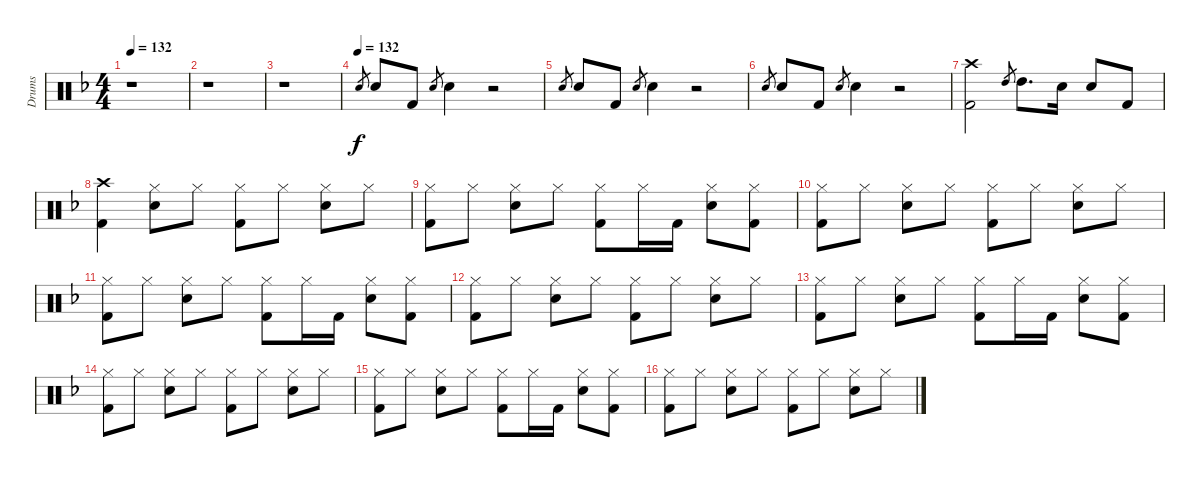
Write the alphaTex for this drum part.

\track ("Drums " "Drums ") {instrument percussion}
\staff {score}
\articulation defaults
\ts (4 4)
\tempo 132
\tempo 80
\tempo 132
\clef neutral
\ks dminor
r.1{dy f} |
r.1 |
r.1 |
\tempo (132)
"Snare (hit) 2".8{gr} "Snare (hit) 2".8 "Kick (hit) 2".8 "Snare (hit) 2".8{gr} "Snare (hit) 2".4 r.2 |
"Snare (hit) 2".8{gr} "Snare (hit) 2".8 "Kick (hit) 2".8 "Snare (hit) 2".8{gr} "Snare (hit) 2".4 r.2 |
"Snare (hit) 2".8{gr} "Snare (hit) 2".8 "Kick (hit) 2".8 "Snare (hit) 2".8{gr} "Snare (hit) 2".4 r.2 |
("Kick (hit) 2" "Crash high (hit)").2 "High Tom (hit)".8{gr} "High Tom (hit)".8{d} "Snare (hit) 2".16 "Snare (hit) 2".8 "Kick (hit) 2".8 |
("Kick (hit) 2" "Crash high (hit)").4 ("Snare (hit) 2" "Hi-Hat (closed)").8 "Hi-Hat (closed)".8 ("Kick (hit) 2" "Hi-Hat (closed)").8 "Hi-Hat (closed)".8 ("Snare (hit) 2" "Hi-Hat (closed)").8 "Hi-Hat (closed)".8 |
("Kick (hit) 2" "Hi-Hat (closed)").8 "Hi-Hat (closed)".8 ("Snare (hit) 2" "Hi-Hat (closed)").8 "Hi-Hat (closed)".8 ("Kick (hit) 2" "Hi-Hat (closed)").8 "Hi-Hat (closed)".16 "Kick (hit) 2".16 ("Snare (hit) 2" "Hi-Hat (closed)").8 ("Kick (hit) 2" "Hi-Hat (closed)").8 |
("Kick (hit) 2" "Hi-Hat (closed)").8 "Hi-Hat (closed)".8 ("Snare (hit) 2" "Hi-Hat (closed)").8 "Hi-Hat (closed)".8 ("Kick (hit) 2" "Hi-Hat (closed)").8 "Hi-Hat (closed)".8 ("Snare (hit) 2" "Hi-Hat (closed)").8 "Hi-Hat (closed)".8 |
("Kick (hit) 2" "Hi-Hat (closed)").8 "Hi-Hat (closed)".8 ("Snare (hit) 2" "Hi-Hat (closed)").8 "Hi-Hat (closed)".8 ("Kick (hit) 2" "Hi-Hat (closed)").8 "Hi-Hat (closed)".16 "Kick (hit) 2".16 ("Snare (hit) 2" "Hi-Hat (closed)").8 ("Kick (hit) 2" "Hi-Hat (closed)").8 |
("Kick (hit) 2" "Hi-Hat (closed)").8 "Hi-Hat (closed)".8 ("Snare (hit) 2" "Hi-Hat (closed)").8 "Hi-Hat (closed)".8 ("Kick (hit) 2" "Hi-Hat (closed)").8 "Hi-Hat (closed)".8 ("Snare (hit) 2" "Hi-Hat (closed)").8 "Hi-Hat (closed)".8 |
("Kick (hit) 2" "Hi-Hat (closed)").8 "Hi-Hat (closed)".8 ("Snare (hit) 2" "Hi-Hat (closed)").8 "Hi-Hat (closed)".8 ("Kick (hit) 2" "Hi-Hat (closed)").8 "Hi-Hat (closed)".16 "Kick (hit) 2".16 ("Snare (hit) 2" "Hi-Hat (closed)").8 ("Kick (hit) 2" "Hi-Hat (closed)").8 |
("Kick (hit) 2" "Hi-Hat (closed)").8 "Hi-Hat (closed)".8 ("Snare (hit) 2" "Hi-Hat (closed)").8 "Hi-Hat (closed)".8 ("Kick (hit) 2" "Hi-Hat (closed)").8 "Hi-Hat (closed)".8 ("Snare (hit) 2" "Hi-Hat (closed)").8 "Hi-Hat (closed)".8 |
("Kick (hit) 2" "Hi-Hat (closed)").8 "Hi-Hat (closed)".8 ("Snare (hit) 2" "Hi-Hat (closed)").8 "Hi-Hat (closed)".8 ("Kick (hit) 2" "Hi-Hat (closed)").8 "Hi-Hat (closed)".16 "Kick (hit) 2".16 ("Snare (hit) 2" "Hi-Hat (closed)").8 ("Kick (hit) 2" "Hi-Hat (closed)").8 |
("Kick (hit) 2" "Hi-Hat (closed)").8 "Hi-Hat (closed)".8 ("Snare (hit) 2" "Hi-Hat (closed)").8 "Hi-Hat (closed)".8 ("Kick (hit) 2" "Hi-Hat (closed)").8 "Hi-Hat (closed)".8 ("Snare (hit) 2" "Hi-Hat (closed)").8 "Hi-Hat (closed)".8
